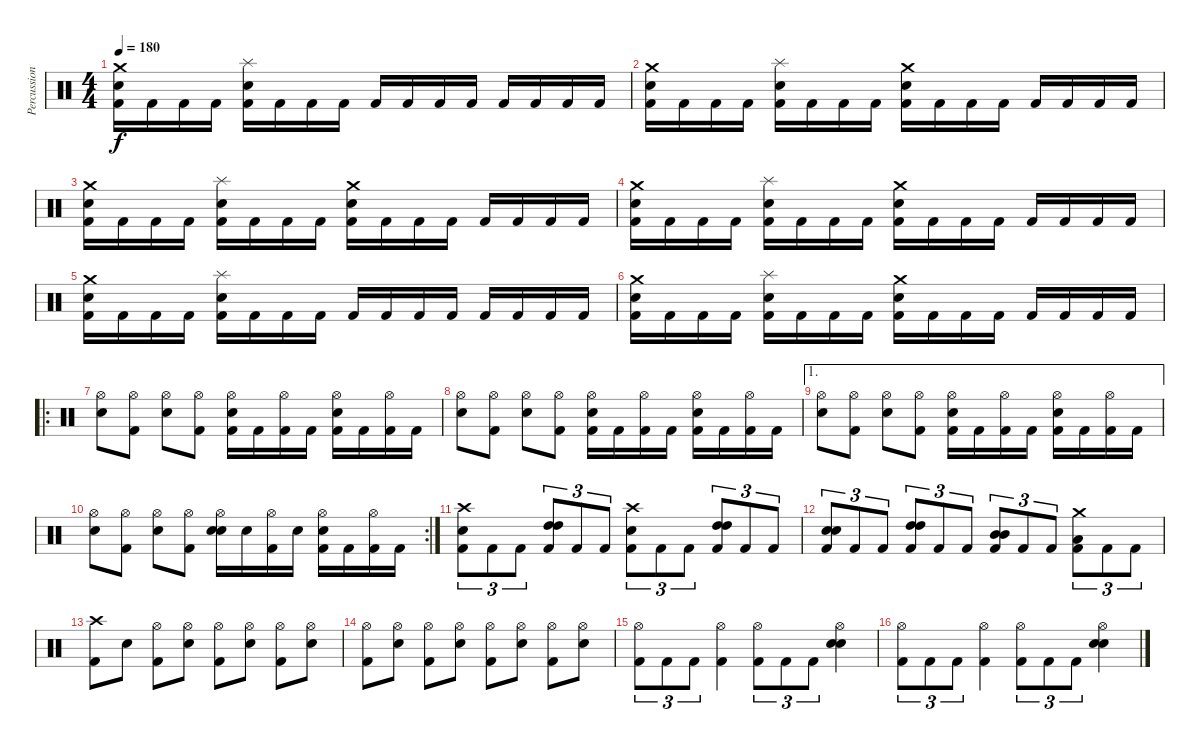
\track ("Percussion" "Percussion") {instrument percussion}
\staff {score}
\articulation defaults
\ts (4 4)
\tempo 180
\clef neutral
\ks c
("Crash medium (hit)" "Snare (hit) 2" "Kick (hit) 2").16{dy f} "Kick (hit) 2".16 "Kick (hit) 2".16 "Kick (hit) 2".16 ("Splash (hit)" "Snare (hit) 2" "Kick (hit) 2").16 "Kick (hit) 2".16 "Kick (hit) 2".16 "Kick (hit) 2".16 "Kick (hit) 2".16 "Kick (hit) 2".16 "Kick (hit) 2".16 "Kick (hit) 2".16 "Kick (hit) 2".16 "Kick (hit) 2".16 "Kick (hit) 2".16 "Kick (hit) 2".16 |
("Crash medium (hit)" "Snare (hit) 2" "Kick (hit) 2").16 "Kick (hit) 2".16 "Kick (hit) 2".16 "Kick (hit) 2".16 ("Splash (hit)" "Snare (hit) 2" "Kick (hit) 2").16 "Kick (hit) 2".16 "Kick (hit) 2".16 "Kick (hit) 2".16 ("Crash medium (hit)" "Snare (hit) 2" "Kick (hit) 2").16 "Kick (hit) 2".16 "Kick (hit) 2".16 "Kick (hit) 2".16 "Kick (hit) 2".16 "Kick (hit) 2".16 "Kick (hit) 2".16 "Kick (hit) 2".16 |
("Crash medium (hit)" "Snare (hit) 2" "Kick (hit) 2").16 "Kick (hit) 2".16 "Kick (hit) 2".16 "Kick (hit) 2".16 ("Splash (hit)" "Snare (hit) 2" "Kick (hit) 2").16 "Kick (hit) 2".16 "Kick (hit) 2".16 "Kick (hit) 2".16 ("Crash medium (hit)" "Snare (hit) 2" "Kick (hit) 2").16 "Kick (hit) 2".16 "Kick (hit) 2".16 "Kick (hit) 2".16 "Kick (hit) 2".16 "Kick (hit) 2".16 "Kick (hit) 2".16 "Kick (hit) 2".16 |
("Crash medium (hit)" "Snare (hit) 2" "Kick (hit) 2").16 "Kick (hit) 2".16 "Kick (hit) 2".16 "Kick (hit) 2".16 ("Splash (hit)" "Snare (hit) 2" "Kick (hit) 2").16 "Kick (hit) 2".16 "Kick (hit) 2".16 "Kick (hit) 2".16 ("Crash medium (hit)" "Snare (hit) 2" "Kick (hit) 2").16 "Kick (hit) 2".16 "Kick (hit) 2".16 "Kick (hit) 2".16 "Kick (hit) 2".16 "Kick (hit) 2".16 "Kick (hit) 2".16 "Kick (hit) 2".16 |
("Crash medium (hit)" "Snare (hit) 2" "Kick (hit) 2").16 "Kick (hit) 2".16 "Kick (hit) 2".16 "Kick (hit) 2".16 ("Splash (hit)" "Snare (hit) 2" "Kick (hit) 2").16 "Kick (hit) 2".16 "Kick (hit) 2".16 "Kick (hit) 2".16 "Kick (hit) 2".16 "Kick (hit) 2".16 "Kick (hit) 2".16 "Kick (hit) 2".16 "Kick (hit) 2".16 "Kick (hit) 2".16 "Kick (hit) 2".16 "Kick (hit) 2".16 |
("Crash medium (hit)" "Snare (hit) 2" "Kick (hit) 2").16 "Kick (hit) 2".16 "Kick (hit) 2".16 "Kick (hit) 2".16 ("Splash (hit)" "Snare (hit) 2" "Kick (hit) 2").16 "Kick (hit) 2".16 "Kick (hit) 2".16 "Kick (hit) 2".16 ("Crash medium (hit)" "Snare (hit) 2" "Kick (hit) 2").16 "Kick (hit) 2".16 "Kick (hit) 2".16 "Kick (hit) 2".16 "Kick (hit) 2".16 "Kick (hit) 2".16 "Kick (hit) 2".16 "Kick (hit) 2".16 |
\ro
("Hi-Hat (open)" "Snare (hit) 2").8 ("Hi-Hat (open)" "Kick (hit) 2").8 ("Hi-Hat (open)" "Snare (hit) 2").8 ("Hi-Hat (open)" "Kick (hit) 2").8 ("Hi-Hat (open)" "Snare (hit) 2" "Kick (hit) 2").16 "Kick (hit) 2".16 ("Hi-Hat (open)" "Kick (hit) 2").16 "Kick (hit) 2".16 ("Hi-Hat (open)" "Snare (hit) 2" "Kick (hit) 2").16 "Kick (hit) 2".16 ("Hi-Hat (open)" "Kick (hit) 2").16 "Kick (hit) 2".16 |
("Hi-Hat (open)" "Snare (hit) 2").8 ("Hi-Hat (open)" "Kick (hit) 2").8 ("Hi-Hat (open)" "Snare (hit) 2").8 ("Hi-Hat (open)" "Kick (hit) 2").8 ("Hi-Hat (open)" "Snare (hit) 2" "Kick (hit) 2").16 "Kick (hit) 2".16 ("Hi-Hat (open)" "Kick (hit) 2").16 "Kick (hit) 2".16 ("Hi-Hat (open)" "Snare (hit) 2" "Kick (hit) 2").16 "Kick (hit) 2".16 ("Hi-Hat (open)" "Kick (hit) 2").16 "Kick (hit) 2".16 |
\ae 1
("Hi-Hat (open)" "Snare (hit) 2").8 ("Hi-Hat (open)" "Kick (hit) 2").8 ("Hi-Hat (open)" "Snare (hit) 2").8 ("Hi-Hat (open)" "Kick (hit) 2").8 ("Hi-Hat (open)" "Snare (hit) 2" "Kick (hit) 2").16 "Kick (hit) 2".16 ("Hi-Hat (open)" "Kick (hit) 2").16 "Kick (hit) 2".16 ("Hi-Hat (open)" "Snare (hit) 2" "Kick (hit) 2").16 "Kick (hit) 2".16 ("Hi-Hat (open)" "Kick (hit) 2").16 "Kick (hit) 2".16 |
\rc 2
("Hi-Hat (open)" "Snare (hit) 2").8 ("Hi-Hat (open)" "Kick (hit) 2").8 ("Hi-Hat (open)" "Snare (hit) 2").8 ("Hi-Hat (open)" "Kick (hit) 2").8 ("Hi-Hat (open)" "Snare (hit) 2" "Snare (hit)").16 "Snare (hit)".16 ("Hi-Hat (open)" "Kick (hit) 2").16 "Snare (hit)".16 ("Hi-Hat (open)" "Snare (hit) 2" "Kick (hit) 2").16 "Kick (hit) 2".16 ("Hi-Hat (open)" "Kick (hit) 2").16 "Kick (hit) 2".16 |
("Crash high (hit)" "Snare (hit) 2" "Kick (hit) 2").8{tu (3 2)} "Kick (hit) 2".8{tu (3 2)} "Kick (hit) 2".8{tu (3 2)} ("High Tom (hit)" "High Tom (hit)" "Kick (hit) 2").8{tu (3 2)} "Kick (hit) 2".8{tu (3 2)} "Kick (hit) 2".8{tu (3 2)} ("Crash high (hit)" "Snare (hit) 2" "Kick (hit) 2").8{tu (3 2)} "Kick (hit) 2".8{tu (3 2)} "Kick (hit) 2".8{tu (3 2)} ("High Tom (hit)" "High Tom (hit)" "Kick (hit) 2").8{tu (3 2)} "Kick (hit) 2".8{tu (3 2)} "Kick (hit) 2".8{tu (3 2)} |
("Snare (hit) 2" "Snare (hit) 2" "Kick (hit) 2").8{tu (3 2)} "Kick (hit) 2".8{tu (3 2)} "Kick (hit) 2".8{tu (3 2)} ("High Tom (hit)" "High Tom (hit)" "Kick (hit) 2").8{tu (3 2)} "Kick (hit) 2".8{tu (3 2)} "Kick (hit) 2".8{tu (3 2)} ("Mid Tom (hit)" "Mid Tom (hit)" "Kick (hit) 2").8{tu (3 2)} "Kick (hit) 2".8{tu (3 2)} "Kick (hit) 2".8{tu (3 2)} ("Crash medium (hit)" "Low Tom (hit)" "Kick (hit) 2").8{tu (3 2)} "Kick (hit) 2".8{tu (3 2)} "Kick (hit) 2".8{tu (3 2)} |
("Crash high (hit)" "Kick (hit) 2").8 "Snare (hit) 2".8 ("Hi-Hat (open)" "Kick (hit) 2").8 ("Hi-Hat (open)" "Snare (hit) 2").8 ("Hi-Hat (open)" "Kick (hit) 2").8 ("Hi-Hat (open)" "Snare (hit) 2").8 ("Hi-Hat (open)" "Kick (hit) 2").8 ("Hi-Hat (open)" "Snare (hit) 2").8 |
("Hi-Hat (open)" "Kick (hit) 2").8 ("Hi-Hat (open)" "Snare (hit) 2").8 ("Hi-Hat (open)" "Kick (hit) 2").8 ("Hi-Hat (open)" "Snare (hit) 2").8 ("Hi-Hat (open)" "Kick (hit) 2").8 ("Hi-Hat (open)" "Snare (hit) 2").8 ("Hi-Hat (open)" "Kick (hit) 2").8 ("Hi-Hat (open)" "Snare (hit) 2").8 |
("Hi-Hat (open)" "Kick (hit) 2").8{tu (3 2)} "Kick (hit) 2".8{tu (3 2)} "Kick (hit) 2".8{tu (3 2)} ("Hi-Hat (open)" "Kick (hit) 2").4 ("Hi-Hat (open)" "Kick (hit) 2").8{tu (3 2)} "Kick (hit) 2".8{tu (3 2)} "Kick (hit) 2".8{tu (3 2)} ("Hi-Hat (open)" "Snare (hit) 2" "Snare (hit)").4 |
("Hi-Hat (open)" "Kick (hit) 2").8{tu (3 2)} "Kick (hit) 2".8{tu (3 2)} "Kick (hit) 2".8{tu (3 2)} ("Hi-Hat (open)" "Kick (hit) 2").4 ("Hi-Hat (open)" "Kick (hit) 2").8{tu (3 2)} "Kick (hit) 2".8{tu (3 2)} "Kick (hit) 2".8{tu (3 2)} ("Hi-Hat (open)" "Snare (hit) 2" "Snare (hit)").4
